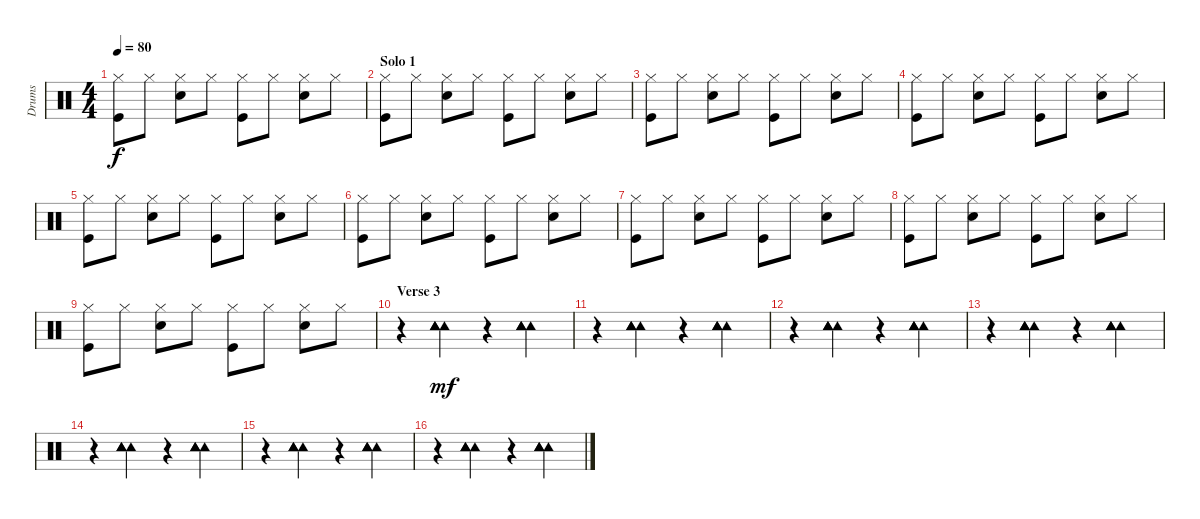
\track ("Drums" "Drums") {instrument percussion}
\staff {score}
\articulation defaults
\ts (4 4)
\tempo 80
\clef neutral
\ks c
("Hi-Hat (closed)" "Kick (hit)").8{dy f} "Hi-Hat (closed)".8 ("Hi-Hat (closed)" "Snare (hit) 2").8 "Hi-Hat (closed)".8 ("Hi-Hat (closed)" "Kick (hit)").8 "Hi-Hat (closed)".8 ("Hi-Hat (closed)" "Snare (hit) 2").8 "Hi-Hat (closed)".8 |
\section ("" "Solo 1")
("Hi-Hat (closed)" "Kick (hit)").8 "Hi-Hat (closed)".8 ("Hi-Hat (closed)" "Snare (hit) 2").8 "Hi-Hat (closed)".8 ("Hi-Hat (closed)" "Kick (hit)").8 "Hi-Hat (closed)".8 ("Hi-Hat (closed)" "Snare (hit) 2").8 "Hi-Hat (closed)".8 |
("Hi-Hat (closed)" "Kick (hit)").8 "Hi-Hat (closed)".8 ("Hi-Hat (closed)" "Snare (hit) 2").8 "Hi-Hat (closed)".8 ("Hi-Hat (closed)" "Kick (hit)").8 "Hi-Hat (closed)".8 ("Hi-Hat (closed)" "Snare (hit) 2").8 "Hi-Hat (closed)".8 |
("Hi-Hat (closed)" "Kick (hit)").8 "Hi-Hat (closed)".8 ("Hi-Hat (closed)" "Snare (hit) 2").8 "Hi-Hat (closed)".8 ("Hi-Hat (closed)" "Kick (hit)").8 "Hi-Hat (closed)".8 ("Hi-Hat (closed)" "Snare (hit) 2").8 "Hi-Hat (closed)".8 |
("Hi-Hat (closed)" "Kick (hit)").8 "Hi-Hat (closed)".8 ("Hi-Hat (closed)" "Snare (hit) 2").8 "Hi-Hat (closed)".8 ("Hi-Hat (closed)" "Kick (hit)").8 "Hi-Hat (closed)".8 ("Hi-Hat (closed)" "Snare (hit) 2").8 "Hi-Hat (closed)".8 |
("Hi-Hat (closed)" "Kick (hit)").8 "Hi-Hat (closed)".8 ("Hi-Hat (closed)" "Snare (hit) 2").8 "Hi-Hat (closed)".8 ("Hi-Hat (closed)" "Kick (hit)").8 "Hi-Hat (closed)".8 ("Hi-Hat (closed)" "Snare (hit) 2").8 "Hi-Hat (closed)".8 |
("Hi-Hat (closed)" "Kick (hit)").8 "Hi-Hat (closed)".8 ("Hi-Hat (closed)" "Snare (hit) 2").8 "Hi-Hat (closed)".8 ("Hi-Hat (closed)" "Kick (hit)").8 "Hi-Hat (closed)".8 ("Hi-Hat (closed)" "Snare (hit) 2").8 "Hi-Hat (closed)".8 |
("Hi-Hat (closed)" "Kick (hit)").8 "Hi-Hat (closed)".8 ("Hi-Hat (closed)" "Snare (hit) 2").8 "Hi-Hat (closed)".8 ("Hi-Hat (closed)" "Kick (hit)").8 "Hi-Hat (closed)".8 ("Hi-Hat (closed)" "Snare (hit) 2").8 "Hi-Hat (closed)".8 |
("Hi-Hat (closed)" "Kick (hit)").8 "Hi-Hat (closed)".8 ("Hi-Hat (closed)" "Snare (hit) 2").8 "Hi-Hat (closed)".8 ("Hi-Hat (closed)" "Kick (hit)").8 "Hi-Hat (closed)".8 ("Hi-Hat (closed)" "Snare (hit) 2").8 "Hi-Hat (closed)".8 |
\section ("" "Verse 3")
r.4 ("Tambourine (hit)" "Tambourine (hit)" "Tambourine (hit)" "Tambourine (hit)").4{bd 30 dy mf} r.4 ("Tambourine (hit)" "Tambourine (hit)" "Tambourine (hit)" "Tambourine (hit)").4{bd 30} |
r.4 ("Tambourine (hit)" "Tambourine (hit)" "Tambourine (hit)" "Tambourine (hit)").4{bd 30} r.4 ("Tambourine (hit)" "Tambourine (hit)" "Tambourine (hit)" "Tambourine (hit)").4{bd 30} |
r.4 ("Tambourine (hit)" "Tambourine (hit)" "Tambourine (hit)" "Tambourine (hit)").4{bd 30} r.4 ("Tambourine (hit)" "Tambourine (hit)" "Tambourine (hit)" "Tambourine (hit)").4{bd 30} |
r.4 ("Tambourine (hit)" "Tambourine (hit)" "Tambourine (hit)" "Tambourine (hit)").4{bd 30} r.4 ("Tambourine (hit)" "Tambourine (hit)" "Tambourine (hit)" "Tambourine (hit)").4{bd 30} |
r.4 ("Tambourine (hit)" "Tambourine (hit)" "Tambourine (hit)" "Tambourine (hit)").4{bd 30} r.4 ("Tambourine (hit)" "Tambourine (hit)" "Tambourine (hit)" "Tambourine (hit)").4{bd 30} |
r.4 ("Tambourine (hit)" "Tambourine (hit)" "Tambourine (hit)" "Tambourine (hit)").4{bd 30} r.4 ("Tambourine (hit)" "Tambourine (hit)" "Tambourine (hit)" "Tambourine (hit)").4{bd 30} |
r.4 ("Tambourine (hit)" "Tambourine (hit)" "Tambourine (hit)" "Tambourine (hit)").4{bd 30} r.4 ("Tambourine (hit)" "Tambourine (hit)" "Tambourine (hit)" "Tambourine (hit)").4{bd 30}
